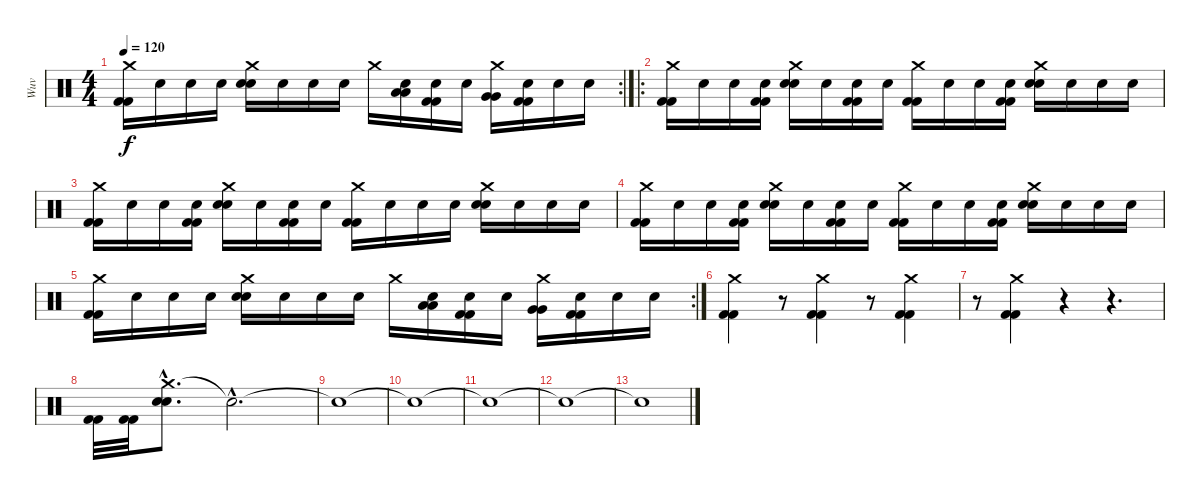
\track ("Wuv" "Wuv") {instrument percussion}
\staff {score}
\articulation defaults
\rc 2
\ts (4 4)
\tempo 120
\clef neutral
\ks c
("Crash medium (hit)" "Kick (hit) 2" "Kick (hit) 2").16{dy f} "Snare (hit)".16 "Snare (hit)".16 "Snare (hit)".16 ("Crash medium (hit)" "Electric Snare (hit)" "Electric Snare (hit)").16 "Snare (hit)".16 "Snare (hit)".16 "Snare (hit)".16 "Crash medium (hit)".16 ("Snare (hit)" "Low Tom (hit)" "Low Tom (hit)").16 ("Snare (hit)" "Kick (hit) 2" "Kick (hit) 2").16 "Snare (hit)".16 ("Crash medium (hit)" "Very Low Tom (hit)" "Very Low Tom (hit)").16 ("Snare (hit)" "Kick (hit) 2" "Kick (hit) 2").16 "Snare (hit)".16 "Snare (hit)".16 |
\ro
("Crash medium (hit)" "Kick (hit) 2" "Kick (hit) 2").16 "Snare (hit)".16 "Snare (hit)".16 ("Snare (hit)" "Kick (hit) 2" "Kick (hit) 2").16 ("Crash medium (hit)" "Electric Snare (hit)" "Electric Snare (hit)").16 "Snare (hit)".16 ("Snare (hit)" "Kick (hit) 2" "Kick (hit) 2").16 "Snare (hit)".16 ("Crash medium (hit)" "Kick (hit) 2" "Kick (hit) 2").16 "Snare (hit)".16 "Snare (hit)".16 ("Snare (hit)" "Kick (hit) 2" "Kick (hit) 2").16 ("Crash medium (hit)" "Electric Snare (hit)" "Electric Snare (hit)").16 "Snare (hit)".16 "Snare (hit)".16 "Snare (hit)".16 |
("Crash medium (hit)" "Kick (hit) 2" "Kick (hit) 2").16 "Snare (hit)".16 "Snare (hit)".16 ("Snare (hit)" "Kick (hit) 2" "Kick (hit) 2").16 ("Crash medium (hit)" "Electric Snare (hit)" "Electric Snare (hit)").16 "Snare (hit)".16 ("Snare (hit)" "Kick (hit) 2" "Kick (hit) 2").16 "Snare (hit)".16 ("Crash medium (hit)" "Kick (hit) 2" "Kick (hit) 2").16 "Snare (hit)".16 "Snare (hit)".16 "Snare (hit)".16 ("Crash medium (hit)" "Electric Snare (hit)" "Electric Snare (hit)").16 "Snare (hit)".16 "Snare (hit)".16 "Snare (hit)".16 |
("Crash medium (hit)" "Kick (hit) 2" "Kick (hit) 2").16 "Snare (hit)".16 "Snare (hit)".16 ("Snare (hit)" "Kick (hit) 2" "Kick (hit) 2").16 ("Crash medium (hit)" "Electric Snare (hit)" "Electric Snare (hit)").16 "Snare (hit)".16 ("Snare (hit)" "Kick (hit) 2" "Kick (hit) 2").16 "Snare (hit)".16 ("Crash medium (hit)" "Kick (hit) 2" "Kick (hit) 2").16 "Snare (hit)".16 "Snare (hit)".16 ("Snare (hit)" "Kick (hit) 2" "Kick (hit) 2").16 ("Crash medium (hit)" "Electric Snare (hit)" "Electric Snare (hit)").16 "Snare (hit)".16 "Snare (hit)".16 "Snare (hit)".16 |
\rc 2
("Crash medium (hit)" "Kick (hit) 2" "Kick (hit) 2").16 "Snare (hit)".16 "Snare (hit)".16 "Snare (hit)".16 ("Crash medium (hit)" "Electric Snare (hit)" "Electric Snare (hit)").16 "Snare (hit)".16 "Snare (hit)".16 "Snare (hit)".16 "Crash medium (hit)".16 ("Snare (hit)" "Low Tom (hit)" "Low Tom (hit)").16 ("Snare (hit)" "Kick (hit) 2" "Kick (hit) 2").16 "Snare (hit)".16 ("Crash medium (hit)" "Very Low Tom (hit)" "Very Low Tom (hit)").16 ("Snare (hit)" "Kick (hit) 2" "Kick (hit) 2").16 "Snare (hit)".16 "Snare (hit)".16 |
("Crash medium (hit)" "Kick (hit) 2" "Kick (hit) 2").4 r.8 ("Crash medium (hit)" "Kick (hit) 2" "Kick (hit) 2").4 r.8 ("Crash medium (hit)" "Kick (hit) 2" "Kick (hit) 2").4 |
r.8 ("Crash medium (hit)" "Kick (hit) 2" "Kick (hit) 2").4 r.4 r.4{d} |
("Kick (hit) 2" "Kick (hit) 2").32 ("Kick (hit) 2" "Kick (hit) 2").32 ("Crash medium (hit)"{hac} "Electric Snare (hit)"{hac} "Electric Snare (hit)"{hac}).8{d} "Snare (hit)"{hac t}.2{d} |
"Snare (hit)"{t}.1 |
"Snare (hit)"{t}.1 |
"Snare (hit)"{t}.1 |
"Snare (hit)"{t}.1 |
"Snare (hit)"{t}.1
